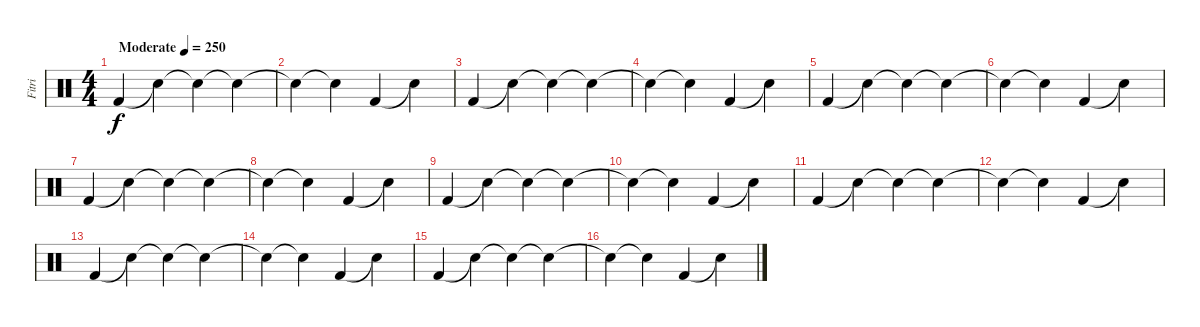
\track ("Fitri" "Fitri") {instrument percussion}
\staff {score}
\articulation defaults
\ts (4 4)
\tempo (250 "Moderate")
\clef neutral
\ks c "Kick (hit) 2".4{dy f} "Snare (hit)"{t}.4 "Snare (hit)"{t}.4 "Snare (hit)"{t}.4
|
"Snare (hit)"{t}.4 "Snare (hit)"{t}.4 "Kick (hit) 2".4 "Snare (hit)"{t}.4 |
"Kick (hit) 2".4 "Snare (hit)"{t}.4 "Snare (hit)"{t}.4 "Snare (hit)"{t}.4 |
"Snare (hit)"{t}.4 "Snare (hit)"{t}.4 "Kick (hit) 2".4 "Snare (hit)"{t}.4 |
"Kick (hit) 2".4 "Snare (hit)"{t}.4 "Snare (hit)"{t}.4 "Snare (hit)"{t}.4 |
"Snare (hit)"{t}.4 "Snare (hit)"{t}.4 "Kick (hit) 2".4 "Snare (hit)"{t}.4 |
"Kick (hit) 2".4 "Snare (hit)"{t}.4 "Snare (hit)"{t}.4 "Snare (hit)"{t}.4 |
"Snare (hit)"{t}.4 "Snare (hit)"{t}.4 "Kick (hit) 2".4 "Snare (hit)"{t}.4 |
"Kick (hit) 2".4 "Snare (hit)"{t}.4 "Snare (hit)"{t}.4 "Snare (hit)"{t}.4 |
"Snare (hit)"{t}.4 "Snare (hit)"{t}.4 "Kick (hit) 2".4 "Snare (hit)"{t}.4 |
"Kick (hit) 2".4 "Snare (hit)"{t}.4 "Snare (hit)"{t}.4 "Snare (hit)"{t}.4 |
"Snare (hit)"{t}.4 "Snare (hit)"{t}.4 "Kick (hit) 2".4 "Snare (hit)"{t}.4 |
"Kick (hit) 2".4 "Snare (hit)"{t}.4 "Snare (hit)"{t}.4 "Snare (hit)"{t}.4 |
"Snare (hit)"{t}.4 "Snare (hit)"{t}.4 "Kick (hit) 2".4 "Snare (hit)"{t}.4 |
"Kick (hit) 2".4 "Snare (hit)"{t}.4 "Snare (hit)"{t}.4 "Snare (hit)"{t}.4 |
"Snare (hit)"{t}.4 "Snare (hit)"{t}.4 "Kick (hit) 2".4 "Snare (hit)"{t}.4
